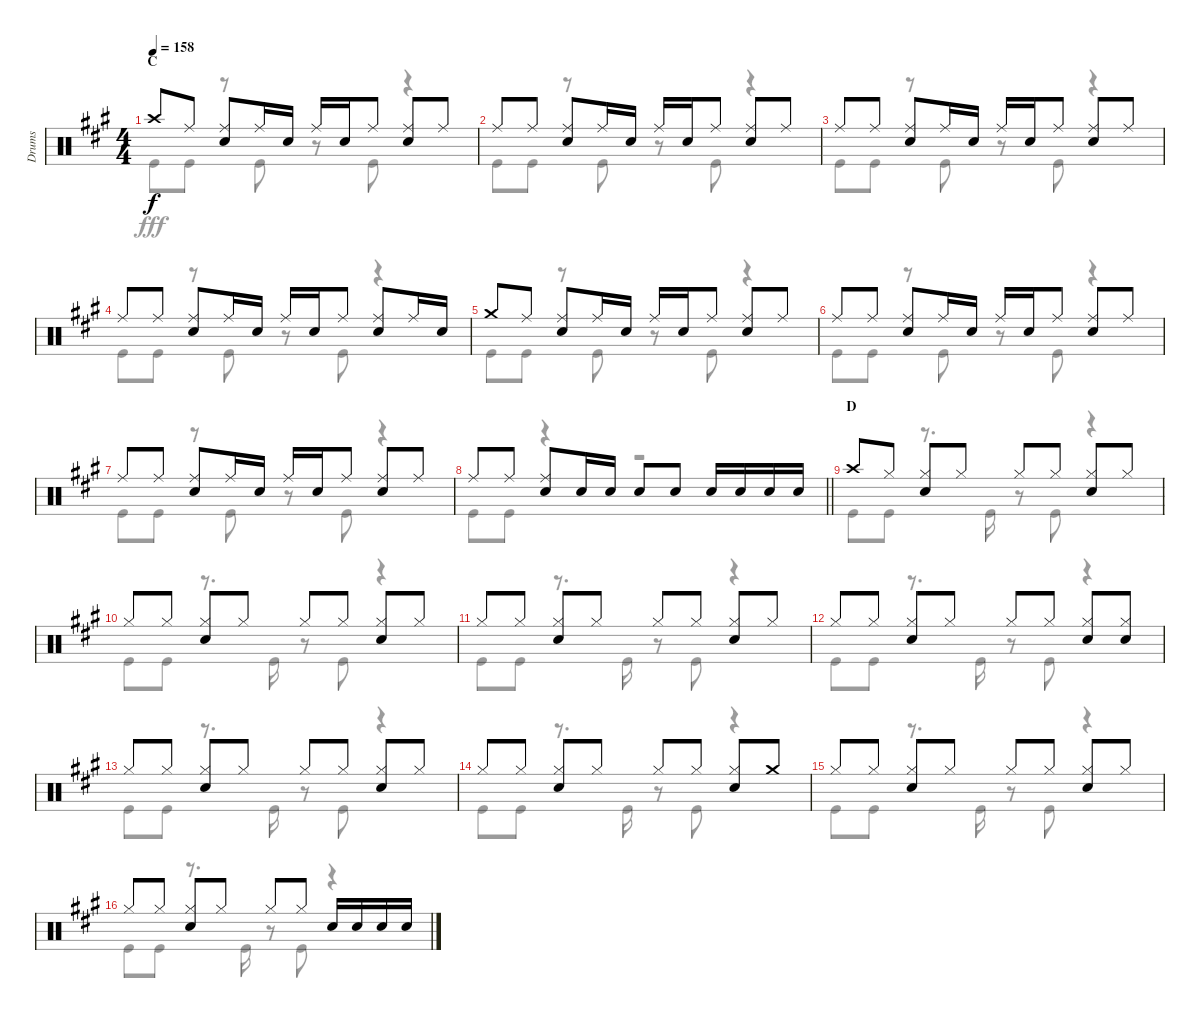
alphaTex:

\track ("Drums" "Drums") {instrument percussion}
\staff {score}
\articulation defaults
\voice
\ts (4 4)
\section ("" "C")
\tempo 158
\clef neutral
\ks a "Crash high (hit)".8{dy f} "Ride (middle)".8
("Ride (middle)" "Snare (hit) 2").8 "Ride (middle)".16 "Snare (hit) 2".16 "Ride (middle)".16 "Snare (hit) 2".16 "Ride (middle)".8 ("Ride (middle)" "Snare (hit) 2").8 "Ride (middle)".8 |
"Ride (middle)".8 "Ride (middle)".8 ("Ride (middle)" "Snare (hit) 2").8 "Ride (middle)".16 "Snare (hit) 2".16 "Ride (middle)".16 "Snare (hit) 2".16 "Ride (middle)".8 ("Ride (middle)" "Snare (hit) 2").8 "Ride (middle)".8 |
"Ride (middle)".8 "Ride (middle)".8 ("Ride (middle)" "Snare (hit) 2").8 "Ride (middle)".16 "Snare (hit) 2".16 "Ride (middle)".16 "Snare (hit) 2".16 "Ride (middle)".8 ("Ride (middle)" "Snare (hit) 2").8 "Ride (middle)".8 |
"Ride (middle)".8 "Ride (middle)".8 ("Ride (middle)" "Snare (hit) 2").8 "Ride (middle)".16 "Snare (hit) 2".16 "Ride (middle)".16 "Snare (hit) 2".16 "Ride (middle)".8 ("Ride (middle)" "Snare (hit) 2").8 "Ride (middle)".16 "Snare (hit) 2".16 |
"Crash medium (hit)".8 "Ride (middle)".8 ("Ride (middle)" "Snare (hit) 2").8 "Ride (middle)".16 "Snare (hit) 2".16 "Ride (middle)".16 "Snare (hit) 2".16 "Ride (middle)".8 ("Ride (middle)" "Snare (hit) 2").8 "Ride (middle)".8 |
"Ride (middle)".8 "Ride (middle)".8 ("Ride (middle)" "Snare (hit) 2").8 "Ride (middle)".16 "Snare (hit) 2".16 "Ride (middle)".16 "Snare (hit) 2".16 "Ride (middle)".8 ("Ride (middle)" "Snare (hit) 2").8 "Ride (middle)".8 |
"Ride (middle)".8 "Ride (middle)".8 ("Ride (middle)" "Snare (hit) 2").8 "Ride (middle)".16 "Snare (hit) 2".16 "Ride (middle)".16 "Snare (hit) 2".16 "Ride (middle)".8 ("Ride (middle)" "Snare (hit) 2").8 "Ride (middle)".8 |
\barLineRight lightlight "Ride (middle)".8 "Ride (middle)".8
("Ride (middle)" "Snare (hit) 2").8 "Snare (hit) 2".16 "Snare (hit) 2".16 "Snare (hit) 2".8 "Snare (hit) 2".8 "Snare (hit) 2".16 "Snare (hit) 2".16 "Snare (hit) 2".16 "Snare (hit) 2".16 |
\section ("" "D")
"Crash high (hit)".8 "Hi-Hat (closed)".8 ("Hi-Hat (closed)" "Snare (hit) 2").8 "Hi-Hat (closed)".8 "Hi-Hat (closed)".8 "Hi-Hat (closed)".8 ("Hi-Hat (closed)" "Snare (hit) 2").8 "Hi-Hat (closed)".8 |
"Hi-Hat (closed)".8 "Hi-Hat (closed)".8 ("Hi-Hat (closed)" "Snare (hit) 2").8 "Hi-Hat (closed)".8 "Hi-Hat (closed)".8 "Hi-Hat (closed)".8 ("Hi-Hat (closed)" "Snare (hit) 2").8 "Hi-Hat (closed)".8 |
"Hi-Hat (closed)".8 "Hi-Hat (closed)".8 ("Hi-Hat (closed)" "Snare (hit) 2").8 "Hi-Hat (closed)".8 "Hi-Hat (closed)".8 "Hi-Hat (closed)".8 ("Hi-Hat (closed)" "Snare (hit) 2").8 "Hi-Hat (closed)".8 |
"Hi-Hat (closed)".8 "Hi-Hat (closed)".8 ("Hi-Hat (closed)" "Snare (hit) 2").8 "Hi-Hat (closed)".8 "Hi-Hat (closed)".8 "Hi-Hat (closed)".8 ("Hi-Hat (closed)" "Snare (hit) 2").8 ("Hi-Hat (closed)" "Snare (hit) 2").8 |
"Hi-Hat (closed)".8 "Hi-Hat (closed)".8 ("Hi-Hat (closed)" "Snare (hit) 2").8 "Hi-Hat (closed)".8 "Hi-Hat (closed)".8 "Hi-Hat (closed)".8 ("Hi-Hat (closed)" "Snare (hit) 2").8 "Hi-Hat (closed)".8 |
"Hi-Hat (closed)".8 "Hi-Hat (closed)".8 ("Hi-Hat (closed)" "Snare (hit) 2").8 "Hi-Hat (closed)".8 "Hi-Hat (closed)".8 "Hi-Hat (closed)".8 ("Hi-Hat (closed)" "Snare (hit) 2").8 "Crash medium (hit)".8 |
"Hi-Hat (closed)".8 "Hi-Hat (closed)".8 ("Hi-Hat (closed)" "Snare (hit) 2").8 "Hi-Hat (closed)".8 "Hi-Hat (closed)".8 "Hi-Hat (closed)".8 ("Hi-Hat (closed)" "Snare (hit) 2").8 "Hi-Hat (closed)".8 |
"Hi-Hat (closed)".8 "Hi-Hat (closed)".8 ("Hi-Hat (closed)" "Snare (hit) 2").8 "Hi-Hat (closed)".8 "Hi-Hat (closed)".8 "Hi-Hat (closed)".8 "Snare (hit) 2".16 "Snare (hit) 2".16 "Snare (hit) 2".16 "Snare (hit) 2".16
\voice
\clef neutral
\ottava regular
\simile none
\ks a "Kick (hit)".8{dy fff} "Kick (hit)".8
r.8 "Kick (hit)".8 r.8 "Kick (hit)".8 r.4 |
"Kick (hit)".8 "Kick (hit)".8 r.8 "Kick (hit)".8 r.8 "Kick (hit)".8 r.4 |
"Kick (hit)".8 "Kick (hit)".8 r.8 "Kick (hit)".8 r.8 "Kick (hit)".8 r.4 |
"Kick (hit)".8 "Kick (hit)".8 r.8 "Kick (hit)".8 r.8 "Kick (hit)".8 r.4 |
"Kick (hit)".8 "Kick (hit)".8 r.8 "Kick (hit)".8 r.8 "Kick (hit)".8 r.4 |
"Kick (hit)".8 "Kick (hit)".8 r.8 "Kick (hit)".8 r.8 "Kick (hit)".8 r.4 |
"Kick (hit)".8 "Kick (hit)".8 r.8 "Kick (hit)".8 r.8 "Kick (hit)".8 r.4 |
\barLineRight lightlight "Kick (hit)".8 "Kick (hit)".8
r.4 r.2 |
"Kick (hit)".8 "Kick (hit)".8 r.8{d} "Kick (hit)".16 r.8 "Kick (hit)".8 r.4 |
"Kick (hit)".8 "Kick (hit)".8 r.8{d} "Kick (hit)".16 r.8 "Kick (hit)".8 r.4 |
"Kick (hit)".8 "Kick (hit)".8 r.8{d} "Kick (hit)".16 r.8 "Kick (hit)".8 r.4 |
"Kick (hit)".8 "Kick (hit)".8 r.8{d} "Kick (hit)".16 r.8 "Kick (hit)".8 r.4 |
"Kick (hit)".8 "Kick (hit)".8 r.8{d} "Kick (hit)".16 r.8 "Kick (hit)".8 r.4 |
"Kick (hit)".8 "Kick (hit)".8 r.8{d} "Kick (hit)".16 r.8 "Kick (hit)".8 r.4 |
"Kick (hit)".8 "Kick (hit)".8 r.8{d} "Kick (hit)".16 r.8 "Kick (hit)".8 r.4 |
"Kick (hit)".8 "Kick (hit)".8 r.8{d} "Kick (hit)".16 r.8 "Kick (hit)".8 r.4
